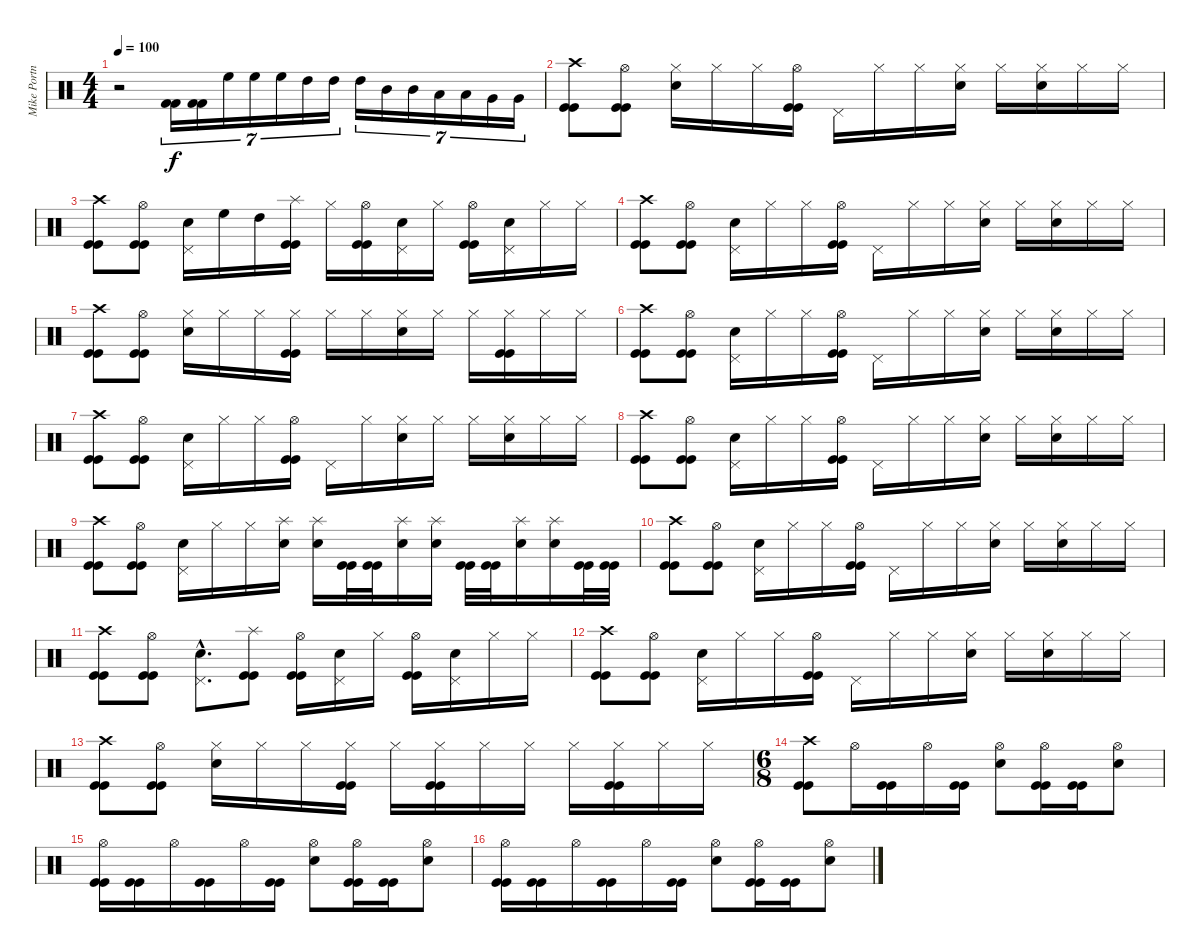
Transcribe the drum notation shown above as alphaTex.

\track ("Mike Portnoy - Drum" "Mike Portn") {instrument percussion}
\staff {score}
\articulation defaults
\ts (4 4)
\tempo 100
\clef neutral
\ks c
r.2{dy f} ("Kick (hit) 2" "Kick (hit) 2").16{tu (7 4)} ("Kick (hit) 2" "Kick (hit) 2").16{tu (7 4)} "High Floor Tom (hit)".16{tu (7 4)} "High Floor Tom (hit)".16{tu (7 4)} "High Floor Tom (hit)".16{tu (7 4)} "High Tom (hit)".16{tu (7 4)} "High Tom (hit)".16{tu (7 4)} "High Tom (hit)".16{tu (7 4)} "Mid Tom (hit)".16{tu (7 4)} "Mid Tom (hit)".16{tu (7 4)} "Low Tom (hit)".16{tu (7 4)} "Low Tom (hit)".16{tu (7 4)} "Very Low Tom (hit)".16{tu (7 4)} "Very Low Tom (hit)".16{tu (7 4)} |
("Crash high (hit)" "Kick (hit)" "Kick (hit)").8 ("Hi-Hat (open)" "Kick (hit)" "Kick (hit)").8 ("Hi-Hat (closed)" "Snare (hit) 2").16 "Hi-Hat (closed)".16 "Hi-Hat (closed)".16 ("Hi-Hat (open)" "Kick (hit)" "Kick (hit)").16 "Pedal Hi-Hat (hit)".16 "Hi-Hat (closed)".16 "Hi-Hat (closed)".16 ("Hi-Hat (closed)" "Snare (hit) 2").16 "Hi-Hat (closed)".16 ("Hi-Hat (closed)" "Snare (hit) 2").16 "Hi-Hat (closed)".16 "Hi-Hat (closed)".16 |
("Crash high (hit)" "Kick (hit)" "Kick (hit)").8 ("Hi-Hat (open)" "Kick (hit)" "Kick (hit)").8 ("Pedal Hi-Hat (hit)" "Snare (hit) 2").16 "High Floor Tom (hit)".16 "High Tom (hit)".16 ("Splash (hit)" "Kick (hit)" "Kick (hit)").16 "Hi-Hat (closed)".16 ("Hi-Hat (open)" "Kick (hit)" "Kick (hit)").16 ("Pedal Hi-Hat (hit)" "Snare (hit) 2").16 "Hi-Hat (closed)".16 ("Hi-Hat (open)" "Kick (hit)" "Kick (hit)").16 ("Pedal Hi-Hat (hit)" "Snare (hit) 2").16 "Hi-Hat (closed)".16 "Hi-Hat (closed)".16 |
("Crash high (hit)" "Kick (hit)" "Kick (hit)").8 ("Hi-Hat (open)" "Kick (hit)" "Kick (hit)").8 ("Pedal Hi-Hat (hit)" "Snare (hit) 2").16 "Hi-Hat (closed)".16 "Hi-Hat (closed)".16 ("Hi-Hat (open)" "Kick (hit)" "Kick (hit)").16 "Pedal Hi-Hat (hit)".16 "Hi-Hat (closed)".16 "Hi-Hat (closed)".16 ("Hi-Hat (closed)" "Snare (hit) 2").16 "Hi-Hat (closed)".16 ("Hi-Hat (closed)" "Snare (hit) 2").16 "Hi-Hat (closed)".16 "Hi-Hat (closed)".16 |
("Crash high (hit)" "Kick (hit)" "Kick (hit)").8 ("Hi-Hat (open)" "Kick (hit)" "Kick (hit)").8 ("Hi-Hat (closed)" "Snare (hit) 2").16 "Hi-Hat (closed)".16 "Hi-Hat (closed)".16 ("Hi-Hat (closed)" "Kick (hit)" "Kick (hit)").16 "Hi-Hat (closed)".16 "Hi-Hat (closed)".16 ("Hi-Hat (closed)" "Snare (hit) 2").16 "Hi-Hat (closed)".16 "Hi-Hat (closed)".16 ("Hi-Hat (closed)" "Kick (hit)" "Kick (hit)").16 "Hi-Hat (closed)".16 "Hi-Hat (closed)".16 |
("Crash high (hit)" "Kick (hit)" "Kick (hit)").8 ("Hi-Hat (open)" "Kick (hit)" "Kick (hit)").8 ("Pedal Hi-Hat (hit)" "Snare (hit) 2").16 "Hi-Hat (closed)".16 "Hi-Hat (closed)".16 ("Hi-Hat (open)" "Kick (hit)" "Kick (hit)").16 "Pedal Hi-Hat (hit)".16 "Hi-Hat (closed)".16 "Hi-Hat (closed)".16 ("Hi-Hat (closed)" "Snare (hit) 2").16 "Hi-Hat (closed)".16 ("Hi-Hat (closed)" "Snare (hit) 2").16 "Hi-Hat (closed)".16 "Hi-Hat (closed)".16 |
("Crash high (hit)" "Kick (hit)" "Kick (hit)").8 ("Hi-Hat (open)" "Kick (hit)" "Kick (hit)").8 ("Pedal Hi-Hat (hit)" "Snare (hit) 2").16 "Hi-Hat (closed)".16 "Hi-Hat (closed)".16 ("Hi-Hat (open)" "Kick (hit)" "Kick (hit)").16 "Pedal Hi-Hat (hit)".16 "Hi-Hat (closed)".16 ("Hi-Hat (closed)" "Snare (hit) 2").16 "Hi-Hat (closed)".16 "Hi-Hat (closed)".16 ("Hi-Hat (closed)" "Snare (hit) 2").16 "Hi-Hat (closed)".16 "Hi-Hat (closed)".16 |
("Crash high (hit)" "Kick (hit)" "Kick (hit)").8 ("Hi-Hat (open)" "Kick (hit)" "Kick (hit)").8 ("Pedal Hi-Hat (hit)" "Snare (hit) 2").16 "Hi-Hat (closed)".16 "Hi-Hat (closed)".16 ("Hi-Hat (open)" "Kick (hit)" "Kick (hit)").16 "Pedal Hi-Hat (hit)".16 "Hi-Hat (closed)".16 "Hi-Hat (closed)".16 ("Hi-Hat (closed)" "Snare (hit) 2").16 "Hi-Hat (closed)".16 ("Hi-Hat (closed)" "Snare (hit) 2").16 "Hi-Hat (closed)".16 "Hi-Hat (closed)".16 |
("Crash high (hit)" "Kick (hit)" "Kick (hit)").8 ("Hi-Hat (open)" "Kick (hit)" "Kick (hit)").8 ("Pedal Hi-Hat (hit)" "Snare (hit) 2").16 "Hi-Hat (closed)".16 "Hi-Hat (closed)".16 ("Splash (hit)" "Snare (hit) 2").16 ("Splash (hit)" "Snare (hit) 2").16 ("Kick (hit)" "Kick (hit)").32 ("Kick (hit)" "Kick (hit)").32 ("Splash (hit)" "Snare (hit) 2").16 ("Splash (hit)" "Snare (hit) 2").16 ("Kick (hit)" "Kick (hit)").32 ("Kick (hit)" "Kick (hit)").32 ("Splash (hit)" "Snare (hit) 2").16 ("Splash (hit)" "Snare (hit) 2").16 ("Kick (hit)" "Kick (hit)").32 ("Kick (hit)" "Kick (hit)").32 |
("Crash high (hit)" "Kick (hit)" "Kick (hit)").8 ("Hi-Hat (open)" "Kick (hit)" "Kick (hit)").8 ("Pedal Hi-Hat (hit)" "Snare (hit) 2").16 "Hi-Hat (closed)".16 "Hi-Hat (closed)".16 ("Hi-Hat (open)" "Kick (hit)" "Kick (hit)").16 "Pedal Hi-Hat (hit)".16 "Hi-Hat (closed)".16 "Hi-Hat (closed)".16 ("Hi-Hat (closed)" "Snare (hit) 2").16 "Hi-Hat (closed)".16 ("Hi-Hat (closed)" "Snare (hit) 2").16 "Hi-Hat (closed)".16 "Hi-Hat (closed)".16 |
("Crash high (hit)" "Kick (hit)" "Kick (hit)").8 ("Hi-Hat (open)" "Kick (hit)" "Kick (hit)").8 ("Pedal Hi-Hat (hit)"{hac} "Snare (hit) 2"{hac}).8{d} ("Splash (hit)" "Kick (hit)" "Kick (hit)").8 ("Hi-Hat (open)" "Kick (hit)" "Kick (hit)").16 ("Pedal Hi-Hat (hit)" "Snare (hit) 2").16 "Hi-Hat (closed)".16 ("Hi-Hat (open)" "Kick (hit)" "Kick (hit)").16 ("Pedal Hi-Hat (hit)" "Snare (hit) 2").16 "Hi-Hat (closed)".16 "Hi-Hat (closed)".16 |
("Crash high (hit)" "Kick (hit)" "Kick (hit)").8 ("Hi-Hat (open)" "Kick (hit)" "Kick (hit)").8 ("Pedal Hi-Hat (hit)" "Snare (hit) 2").16 "Hi-Hat (closed)".16 "Hi-Hat (closed)".16 ("Hi-Hat (open)" "Kick (hit)" "Kick (hit)").16 "Pedal Hi-Hat (hit)".16 "Hi-Hat (closed)".16 "Hi-Hat (closed)".16 ("Hi-Hat (closed)" "Snare (hit) 2").16 "Hi-Hat (closed)".16 ("Hi-Hat (closed)" "Snare (hit) 2").16 "Hi-Hat (closed)".16 "Hi-Hat (closed)".16 |
("Crash high (hit)" "Kick (hit)" "Kick (hit)").8 ("Hi-Hat (open)" "Kick (hit)" "Kick (hit)").8 ("Hi-Hat (closed)" "Snare (hit) 2").16 "Hi-Hat (closed)".16 "Hi-Hat (closed)".16 ("Hi-Hat (closed)" "Kick (hit)" "Kick (hit)").16 "Hi-Hat (closed)".16 ("Hi-Hat (closed)" "Kick (hit)" "Kick (hit)").16 "Hi-Hat (closed)".16 "Hi-Hat (closed)".16 "Hi-Hat (closed)".16 ("Hi-Hat (closed)" "Kick (hit)" "Kick (hit)").16 "Hi-Hat (closed)".16 "Hi-Hat (closed)".16 |
\ts (6 8)
("Crash high (hit)" "Kick (hit)" "Kick (hit)").8 "Hi-Hat (open)".16 ("Kick (hit)" "Kick (hit)").16 "Hi-Hat (open)".16 ("Kick (hit)" "Kick (hit)").16 ("Hi-Hat (open)" "Snare (hit) 2").8 ("Hi-Hat (open)" "Kick (hit)" "Kick (hit)").16 ("Kick (hit)" "Kick (hit)").16 ("Hi-Hat (open)" "Snare (hit) 2").8 |
("Hi-Hat (open)" "Kick (hit)" "Kick (hit)").16 ("Kick (hit)" "Kick (hit)").16 "Hi-Hat (open)".16 ("Kick (hit)" "Kick (hit)").16 "Hi-Hat (open)".16 ("Kick (hit)" "Kick (hit)").16 ("Hi-Hat (open)" "Snare (hit) 2").8 ("Hi-Hat (open)" "Kick (hit)" "Kick (hit)").16 ("Kick (hit)" "Kick (hit)").16 ("Hi-Hat (open)" "Snare (hit) 2").8 |
("Hi-Hat (open)" "Kick (hit)" "Kick (hit)").16 ("Kick (hit)" "Kick (hit)").16 "Hi-Hat (open)".16 ("Kick (hit)" "Kick (hit)").16 "Hi-Hat (open)".16 ("Kick (hit)" "Kick (hit)").16 ("Hi-Hat (open)" "Snare (hit) 2").8 ("Hi-Hat (open)" "Kick (hit)" "Kick (hit)").16 ("Kick (hit)" "Kick (hit)").16 ("Hi-Hat (open)" "Snare (hit) 2").8
